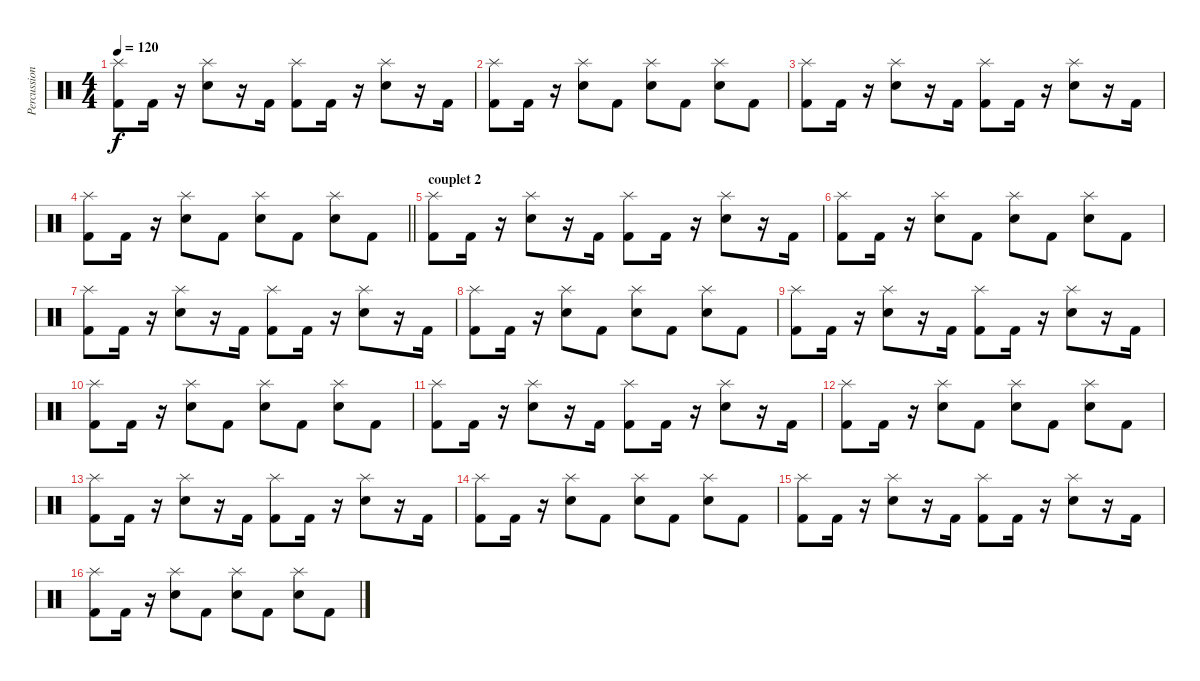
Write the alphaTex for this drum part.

\track ("Percussions" "Percussion") {instrument percussion}
\staff {score}
\articulation defaults
\ts (4 4)
\tempo 120
\clef neutral
\ks c
("Splash (hit)" "Kick (hit) 2").8{dy f} "Kick (hit) 2".16 r.16 ("Splash (hit)" "Electric Snare (hit)").8 r.16 "Kick (hit) 2".16 ("Splash (hit)" "Kick (hit) 2").8 "Kick (hit) 2".16 r.16 ("Splash (hit)" "Electric Snare (hit)").8 r.16 "Kick (hit) 2".16 |
("Splash (hit)" "Kick (hit) 2").8 "Kick (hit) 2".16 r.16 ("Splash (hit)" "Electric Snare (hit)").8 "Kick (hit) 2".8 ("Splash (hit)" "Electric Snare (hit)").8 "Kick (hit) 2".8 ("Splash (hit)" "Electric Snare (hit)").8 "Kick (hit) 2".8 |
("Splash (hit)" "Kick (hit) 2").8 "Kick (hit) 2".16 r.16 ("Splash (hit)" "Electric Snare (hit)").8 r.16 "Kick (hit) 2".16 ("Splash (hit)" "Kick (hit) 2").8 "Kick (hit) 2".16 r.16 ("Splash (hit)" "Electric Snare (hit)").8 r.16 "Kick (hit) 2".16 |
\barLineRight lightlight
("Splash (hit)" "Kick (hit) 2").8 "Kick (hit) 2".16 r.16 ("Splash (hit)" "Electric Snare (hit)").8 "Kick (hit) 2".8 ("Splash (hit)" "Electric Snare (hit)").8 "Kick (hit) 2".8 ("Splash (hit)" "Electric Snare (hit)").8 "Kick (hit) 2".8 |
\section ("" "couplet 2")
("Splash (hit)" "Kick (hit) 2").8 "Kick (hit) 2".16 r.16 ("Splash (hit)" "Electric Snare (hit)").8 r.16 "Kick (hit) 2".16 ("Splash (hit)" "Kick (hit) 2").8 "Kick (hit) 2".16 r.16 ("Splash (hit)" "Electric Snare (hit)").8 r.16 "Kick (hit) 2".16 |
("Splash (hit)" "Kick (hit) 2").8 "Kick (hit) 2".16 r.16 ("Splash (hit)" "Electric Snare (hit)").8 "Kick (hit) 2".8 ("Splash (hit)" "Electric Snare (hit)").8 "Kick (hit) 2".8 ("Splash (hit)" "Electric Snare (hit)").8 "Kick (hit) 2".8 |
("Splash (hit)" "Kick (hit) 2").8 "Kick (hit) 2".16 r.16 ("Splash (hit)" "Electric Snare (hit)").8 r.16 "Kick (hit) 2".16 ("Splash (hit)" "Kick (hit) 2").8 "Kick (hit) 2".16 r.16 ("Splash (hit)" "Electric Snare (hit)").8 r.16 "Kick (hit) 2".16 |
("Splash (hit)" "Kick (hit) 2").8 "Kick (hit) 2".16 r.16 ("Splash (hit)" "Electric Snare (hit)").8 "Kick (hit) 2".8 ("Splash (hit)" "Electric Snare (hit)").8 "Kick (hit) 2".8 ("Splash (hit)" "Electric Snare (hit)").8 "Kick (hit) 2".8 |
("Splash (hit)" "Kick (hit) 2").8 "Kick (hit) 2".16 r.16 ("Splash (hit)" "Electric Snare (hit)").8 r.16 "Kick (hit) 2".16 ("Splash (hit)" "Kick (hit) 2").8 "Kick (hit) 2".16 r.16 ("Splash (hit)" "Electric Snare (hit)").8 r.16 "Kick (hit) 2".16 |
("Splash (hit)" "Kick (hit) 2").8 "Kick (hit) 2".16 r.16 ("Splash (hit)" "Electric Snare (hit)").8 "Kick (hit) 2".8 ("Splash (hit)" "Electric Snare (hit)").8 "Kick (hit) 2".8 ("Splash (hit)" "Electric Snare (hit)").8 "Kick (hit) 2".8 |
("Splash (hit)" "Kick (hit) 2").8 "Kick (hit) 2".16 r.16 ("Splash (hit)" "Electric Snare (hit)").8 r.16 "Kick (hit) 2".16 ("Splash (hit)" "Kick (hit) 2").8 "Kick (hit) 2".16 r.16 ("Splash (hit)" "Electric Snare (hit)").8 r.16 "Kick (hit) 2".16 |
("Splash (hit)" "Kick (hit) 2").8 "Kick (hit) 2".16 r.16 ("Splash (hit)" "Electric Snare (hit)").8 "Kick (hit) 2".8 ("Splash (hit)" "Electric Snare (hit)").8 "Kick (hit) 2".8 ("Splash (hit)" "Electric Snare (hit)").8 "Kick (hit) 2".8 |
("Splash (hit)" "Kick (hit) 2").8 "Kick (hit) 2".16 r.16 ("Splash (hit)" "Electric Snare (hit)").8 r.16 "Kick (hit) 2".16 ("Splash (hit)" "Kick (hit) 2").8 "Kick (hit) 2".16 r.16 ("Splash (hit)" "Electric Snare (hit)").8 r.16 "Kick (hit) 2".16 |
("Splash (hit)" "Kick (hit) 2").8 "Kick (hit) 2".16 r.16 ("Splash (hit)" "Electric Snare (hit)").8 "Kick (hit) 2".8 ("Splash (hit)" "Electric Snare (hit)").8 "Kick (hit) 2".8 ("Splash (hit)" "Electric Snare (hit)").8 "Kick (hit) 2".8 |
("Splash (hit)" "Kick (hit) 2").8 "Kick (hit) 2".16 r.16 ("Splash (hit)" "Electric Snare (hit)").8 r.16 "Kick (hit) 2".16 ("Splash (hit)" "Kick (hit) 2").8 "Kick (hit) 2".16 r.16 ("Splash (hit)" "Electric Snare (hit)").8 r.16 "Kick (hit) 2".16 |
("Splash (hit)" "Kick (hit) 2").8 "Kick (hit) 2".16 r.16 ("Splash (hit)" "Electric Snare (hit)").8 "Kick (hit) 2".8 ("Splash (hit)" "Electric Snare (hit)").8 "Kick (hit) 2".8 ("Splash (hit)" "Electric Snare (hit)").8 "Kick (hit) 2".8
